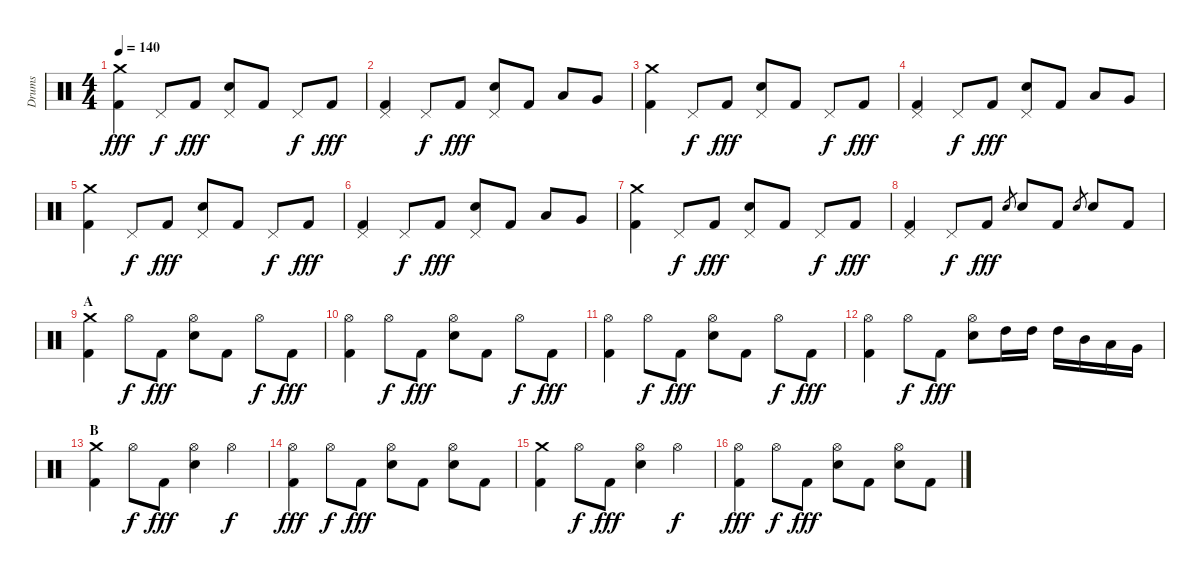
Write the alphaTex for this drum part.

\track ("Drums" "Drums") {instrument percussion}
\staff {score}
\articulation defaults
\ts (4 4)
\tempo 140
\clef neutral
\ks c
("Crash medium (hit)" "Kick (hit) 2").4{dy fff} "Pedal Hi-Hat (hit)".8{dy f} "Kick (hit) 2".8{dy fff} ("Pedal Hi-Hat (hit)" "Electric Snare (hit)").8 "Kick (hit) 2".8 "Pedal Hi-Hat (hit)".8{dy f} "Kick (hit) 2".8{dy fff} |
("Pedal Hi-Hat (hit)" "Kick (hit) 2").4 "Pedal Hi-Hat (hit)".8{dy f} "Kick (hit) 2".8{dy fff} ("Pedal Hi-Hat (hit)" "Electric Snare (hit)").8 "Kick (hit) 2".8 "Low Tom (hit)".8 "Very Low Tom (hit)".8 |
("Crash medium (hit)" "Kick (hit) 2").4 "Pedal Hi-Hat (hit)".8{dy f} "Kick (hit) 2".8{dy fff} ("Pedal Hi-Hat (hit)" "Electric Snare (hit)").8 "Kick (hit) 2".8 "Pedal Hi-Hat (hit)".8{dy f} "Kick (hit) 2".8{dy fff} |
("Pedal Hi-Hat (hit)" "Kick (hit) 2").4 "Pedal Hi-Hat (hit)".8{dy f} "Kick (hit) 2".8{dy fff} ("Pedal Hi-Hat (hit)" "Electric Snare (hit)").8 "Kick (hit) 2".8 "Low Tom (hit)".8 "Very Low Tom (hit)".8 |
("Crash medium (hit)" "Kick (hit) 2").4 "Pedal Hi-Hat (hit)".8{dy f} "Kick (hit) 2".8{dy fff} ("Pedal Hi-Hat (hit)" "Electric Snare (hit)").8 "Kick (hit) 2".8 "Pedal Hi-Hat (hit)".8{dy f} "Kick (hit) 2".8{dy fff} |
("Pedal Hi-Hat (hit)" "Kick (hit) 2").4 "Pedal Hi-Hat (hit)".8{dy f} "Kick (hit) 2".8{dy fff} ("Pedal Hi-Hat (hit)" "Electric Snare (hit)").8 "Kick (hit) 2".8 "Low Tom (hit)".8 "Very Low Tom (hit)".8 |
("Crash medium (hit)" "Kick (hit) 2").4 "Pedal Hi-Hat (hit)".8{dy f} "Kick (hit) 2".8{dy fff} ("Pedal Hi-Hat (hit)" "Electric Snare (hit)").8 "Kick (hit) 2".8 "Pedal Hi-Hat (hit)".8{dy f} "Kick (hit) 2".8{dy fff} |
("Pedal Hi-Hat (hit)" "Kick (hit) 2").4 "Pedal Hi-Hat (hit)".8{dy f} "Kick (hit) 2".8{dy fff} "Electric Snare (hit)".8{gr} "Electric Snare (hit)".8 "Kick (hit) 2".8 "Electric Snare (hit)".8{gr} "Electric Snare (hit)".8 "Kick (hit) 2".8 |
\section ("" "A")
("Crash medium (hit)" "Kick (hit) 2").4 "Hi-Hat (open)".8{dy f} "Kick (hit) 2".8{dy fff} ("Hi-Hat (open)" "Electric Snare (hit)").8 "Kick (hit) 2".8 "Hi-Hat (open)".8{dy f} "Kick (hit) 2".8{dy fff} |
("Hi-Hat (open)" "Kick (hit) 2").4 "Hi-Hat (open)".8{dy f} "Kick (hit) 2".8{dy fff} ("Hi-Hat (open)" "Electric Snare (hit)").8 "Kick (hit) 2".8 "Hi-Hat (open)".8{dy f} "Kick (hit) 2".8{dy fff} |
("Hi-Hat (open)" "Kick (hit) 2").4 "Hi-Hat (open)".8{dy f} "Kick (hit) 2".8{dy fff} ("Hi-Hat (open)" "Electric Snare (hit)").8 "Kick (hit) 2".8 "Hi-Hat (open)".8{dy f} "Kick (hit) 2".8{dy fff} |
("Hi-Hat (open)" "Kick (hit) 2").4 "Hi-Hat (open)".8{dy f} "Kick (hit) 2".8{dy fff} ("Hi-Hat (open)" "Electric Snare (hit)").8 "High Tom (hit)".16 "High Tom (hit)".16 "High Tom (hit)".16 "Mid Tom (hit)".16 "Low Tom (hit)".16 "Very Low Tom (hit)".16 |
\section ("" "B")
("Crash medium (hit)" "Kick (hit) 2").4 "Hi-Hat (open)".8{dy f} "Kick (hit) 2".8{dy fff} ("Hi-Hat (open)" "Electric Snare (hit)").4 "Hi-Hat (open)".4{dy f} |
("Hi-Hat (open)" "Kick (hit) 2").4{dy fff} "Hi-Hat (open)".8{dy f} "Kick (hit) 2".8{dy fff} ("Hi-Hat (open)" "Electric Snare (hit)").8 "Kick (hit) 2".8 ("Hi-Hat (open)" "Electric Snare (hit)").8 "Kick (hit) 2".8 |
("Crash medium (hit)" "Kick (hit) 2").4 "Hi-Hat (open)".8{dy f} "Kick (hit) 2".8{dy fff} ("Hi-Hat (open)" "Electric Snare (hit)").4 "Hi-Hat (open)".4{dy f} |
("Hi-Hat (open)" "Kick (hit) 2").4{dy fff} "Hi-Hat (open)".8{dy f} "Kick (hit) 2".8{dy fff} ("Hi-Hat (open)" "Electric Snare (hit)").8 "Kick (hit) 2".8 ("Hi-Hat (open)" "Electric Snare (hit)").8 "Kick (hit) 2".8
